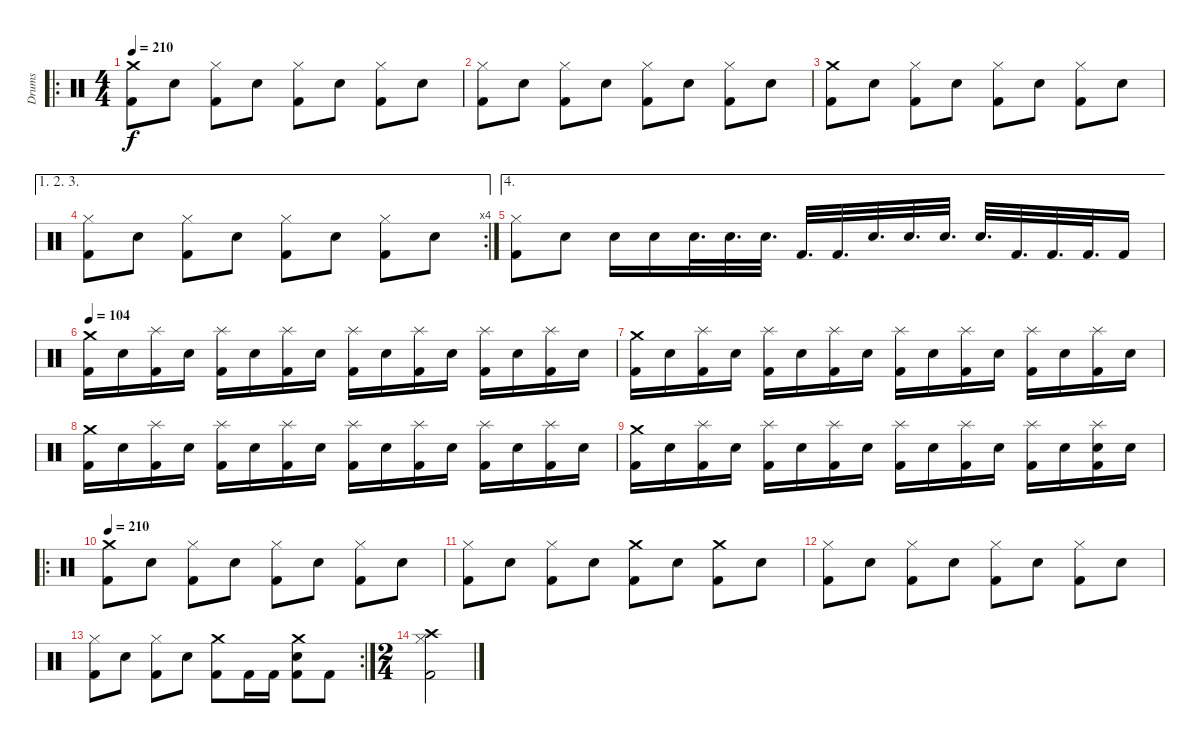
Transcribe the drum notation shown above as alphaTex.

\track ("Drums" "Drums") {instrument percussion}
\staff {score}
\articulation defaults
\ro
\ts (4 4)
\tempo 210
\clef neutral
\ks c
("Crash medium (hit)" "Kick (hit) 2").8{dy f} "Electric Snare (hit)".8 ("Hi-Hat (closed)" "Kick (hit) 2").8 "Electric Snare (hit)".8 ("Hi-Hat (closed)" "Kick (hit) 2").8 "Electric Snare (hit)".8 ("Hi-Hat (closed)" "Kick (hit) 2").8 "Electric Snare (hit)".8 |
("Hi-Hat (closed)" "Kick (hit) 2").8 "Electric Snare (hit)".8 ("Hi-Hat (closed)" "Kick (hit) 2").8 "Electric Snare (hit)".8 ("Hi-Hat (closed)" "Kick (hit) 2").8 "Electric Snare (hit)".8 ("Hi-Hat (closed)" "Kick (hit) 2").8 "Electric Snare (hit)".8 |
("Crash medium (hit)" "Kick (hit) 2").8 "Electric Snare (hit)".8 ("Hi-Hat (closed)" "Kick (hit) 2").8 "Electric Snare (hit)".8 ("Hi-Hat (closed)" "Kick (hit) 2").8 "Electric Snare (hit)".8 ("Hi-Hat (closed)" "Kick (hit) 2").8 "Electric Snare (hit)".8 |
\ae (1 2 3)
\rc 4
("Hi-Hat (closed)" "Kick (hit) 2").8 "Electric Snare (hit)".8 ("Hi-Hat (closed)" "Kick (hit) 2").8 "Electric Snare (hit)".8 ("Hi-Hat (closed)" "Kick (hit) 2").8 "Electric Snare (hit)".8 ("Hi-Hat (closed)" "Kick (hit) 2").8 "Electric Snare (hit)".8 |
\ae 4
("Hi-Hat (closed)" "Kick (hit) 2").8 "Electric Snare (hit)".8 "Electric Snare (hit)".16 "Electric Snare (hit)".16 "Electric Snare (hit)".32{d} "Electric Snare (hit)".32{d} "Electric Snare (hit)".32{d} "Kick (hit) 2".32{d} "Kick (hit) 2".32{d} "Electric Snare (hit)".32{d} "Electric Snare (hit)".32{d} "Electric Snare (hit)".32{d} "Electric Snare (hit)".32{d} "Kick (hit) 2".32{d} "Kick (hit) 2".32{d} "Kick (hit) 2".32{d} "Kick (hit) 2".16 |
\tempo 104
("Crash medium (hit)" "Kick (hit) 2").16 "Electric Snare (hit)".16 ("Splash (hit)" "Kick (hit) 2").16 "Electric Snare (hit)".16 ("Splash (hit)" "Kick (hit) 2").16 "Electric Snare (hit)".16 ("Splash (hit)" "Kick (hit) 2").16 "Electric Snare (hit)".16 ("Splash (hit)" "Kick (hit) 2").16 "Electric Snare (hit)".16 ("Splash (hit)" "Kick (hit) 2").16 "Electric Snare (hit)".16 ("Splash (hit)" "Kick (hit) 2").16 "Electric Snare (hit)".16 ("Splash (hit)" "Kick (hit) 2").16 "Electric Snare (hit)".16 |
("Crash medium (hit)" "Kick (hit) 2").16 "Electric Snare (hit)".16 ("Splash (hit)" "Kick (hit) 2").16 "Electric Snare (hit)".16 ("Splash (hit)" "Kick (hit) 2").16 "Electric Snare (hit)".16 ("Splash (hit)" "Kick (hit) 2").16 "Electric Snare (hit)".16 ("Splash (hit)" "Kick (hit) 2").16 "Electric Snare (hit)".16 ("Splash (hit)" "Kick (hit) 2").16 "Electric Snare (hit)".16 ("Splash (hit)" "Kick (hit) 2").16 "Electric Snare (hit)".16 ("Splash (hit)" "Kick (hit) 2").16 "Electric Snare (hit)".16 |
("Crash medium (hit)" "Kick (hit) 2").16 "Electric Snare (hit)".16 ("Splash (hit)" "Kick (hit) 2").16 "Electric Snare (hit)".16 ("Splash (hit)" "Kick (hit) 2").16 "Electric Snare (hit)".16 ("Splash (hit)" "Kick (hit) 2").16 "Electric Snare (hit)".16 ("Splash (hit)" "Kick (hit) 2").16 "Electric Snare (hit)".16 ("Splash (hit)" "Kick (hit) 2").16 "Electric Snare (hit)".16 ("Splash (hit)" "Kick (hit) 2").16 "Electric Snare (hit)".16 ("Splash (hit)" "Kick (hit) 2").16 "Electric Snare (hit)".16 |
("Crash medium (hit)" "Kick (hit) 2").16 "Electric Snare (hit)".16 ("Splash (hit)" "Kick (hit) 2").16 "Electric Snare (hit)".16 ("Splash (hit)" "Kick (hit) 2").16 "Electric Snare (hit)".16 ("Splash (hit)" "Kick (hit) 2").16 "Electric Snare (hit)".16 ("Splash (hit)" "Kick (hit) 2").16 "Electric Snare (hit)".16 ("Splash (hit)" "Kick (hit) 2").16 "Electric Snare (hit)".16 ("Splash (hit)" "Kick (hit) 2").16 "Electric Snare (hit)".16 ("Splash (hit)" "Electric Snare (hit)" "Kick (hit) 2").16 "Electric Snare (hit)".16 |
\ro
\tempo 210
("Crash medium (hit)" "Kick (hit) 2").8 "Electric Snare (hit)".8 ("Hi-Hat (closed)" "Kick (hit) 2").8 "Electric Snare (hit)".8 ("Hi-Hat (closed)" "Kick (hit) 2").8 "Electric Snare (hit)".8 ("Hi-Hat (closed)" "Kick (hit) 2").8 "Electric Snare (hit)".8 |
("Hi-Hat (closed)" "Kick (hit) 2").8 "Electric Snare (hit)".8 ("Hi-Hat (closed)" "Kick (hit) 2").8 "Electric Snare (hit)".8 ("Crash medium (hit)" "Kick (hit) 2").8 "Electric Snare (hit)".8 ("Crash medium (hit)" "Kick (hit) 2").8 "Electric Snare (hit)".8 |
("Hi-Hat (closed)" "Kick (hit) 2").8 "Electric Snare (hit)".8 ("Hi-Hat (closed)" "Kick (hit) 2").8 "Electric Snare (hit)".8 ("Hi-Hat (closed)" "Kick (hit) 2").8 "Electric Snare (hit)".8 ("Hi-Hat (closed)" "Kick (hit) 2").8 "Electric Snare (hit)".8 |
\rc 2
("Hi-Hat (closed)" "Kick (hit) 2").8 "Electric Snare (hit)".8 ("Hi-Hat (closed)" "Kick (hit) 2").8 "Electric Snare (hit)".8 ("Crash medium (hit)" "Kick (hit) 2").8 "Kick (hit) 2".16 "Kick (hit) 2".16 ("Crash medium (hit)" "Electric Snare (hit)" "Kick (hit) 2").8 "Kick (hit) 2".8 |
\ts (2 4)
("Hi-Hat (closed)" "Crash high (hit)" "Kick (hit) 2").2
